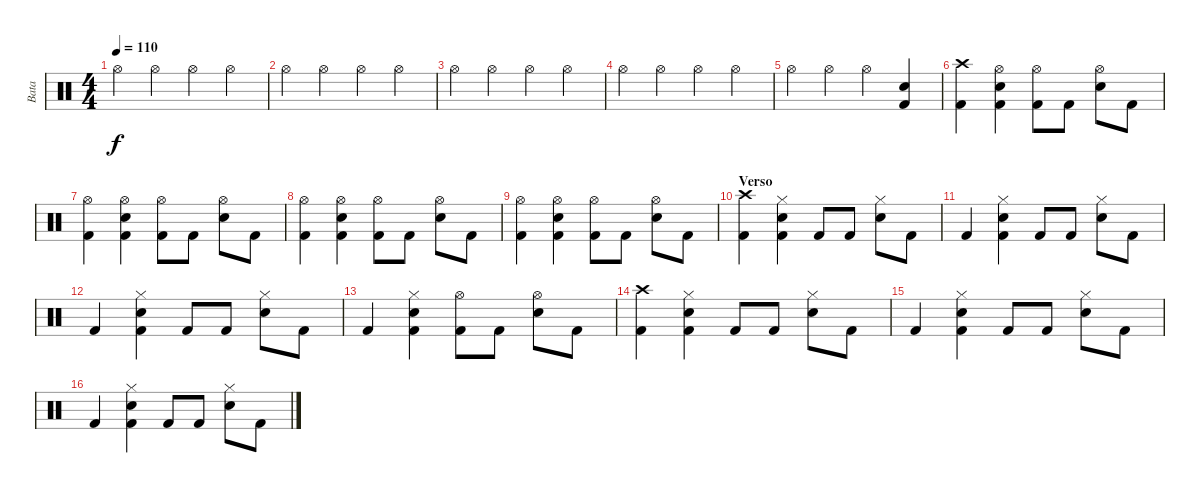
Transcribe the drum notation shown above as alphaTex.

\track ("Bata" "Bata") {instrument percussion}
\staff {score}
\articulation defaults
\ts (4 4)
\tempo 110
\clef neutral
\ks c "Hi-Hat (open)".4{dy f} "Hi-Hat (open)".4 "Hi-Hat (open)".4 "Hi-Hat (open)".4
|
"Hi-Hat (open)".4 "Hi-Hat (open)".4 "Hi-Hat (open)".4 "Hi-Hat (open)".4 |
"Hi-Hat (open)".4 "Hi-Hat (open)".4 "Hi-Hat (open)".4 "Hi-Hat (open)".4 |
"Hi-Hat (open)".4 "Hi-Hat (open)".4 "Hi-Hat (open)".4 "Hi-Hat (open)".4 |
"Hi-Hat (open)".4 "Hi-Hat (open)".4 "Hi-Hat (open)".4 ("Kick (hit) 2" "Snare (hit) 2").4 |
("Kick (hit) 2" "Crash high (hit)").4 ("Kick (hit) 2" "Snare (hit) 2" "Hi-Hat (open)").4 ("Kick (hit) 2" "Hi-Hat (open)").8 "Kick (hit) 2".8 ("Snare (hit) 2" "Hi-Hat (open)").8 "Kick (hit) 2".8 |
("Kick (hit) 2" "Hi-Hat (open)").4 ("Kick (hit) 2" "Snare (hit) 2" "Hi-Hat (open)").4 ("Kick (hit) 2" "Hi-Hat (open)").8 "Kick (hit) 2".8 ("Snare (hit) 2" "Hi-Hat (open)").8 "Kick (hit) 2".8 |
("Kick (hit) 2" "Hi-Hat (open)").4 ("Kick (hit) 2" "Snare (hit) 2" "Hi-Hat (open)").4 ("Kick (hit) 2" "Hi-Hat (open)").8 "Kick (hit) 2".8 ("Snare (hit) 2" "Hi-Hat (open)").8 "Kick (hit) 2".8 |
("Kick (hit) 2" "Hi-Hat (open)").4 ("Kick (hit) 2" "Snare (hit) 2" "Hi-Hat (open)").4 ("Kick (hit) 2" "Hi-Hat (open)").8 "Kick (hit) 2".8 ("Snare (hit) 2" "Hi-Hat (open)").8 "Kick (hit) 2".8 |
\section ("" "Verso")
("Kick (hit) 2" "Crash high (hit)").4 ("Kick (hit) 2" "Snare (hit) 2" "Hi-Hat (closed)").4 "Kick (hit) 2".8 "Kick (hit) 2".8 ("Snare (hit) 2" "Hi-Hat (closed)").8 "Kick (hit) 2".8 |
"Kick (hit) 2".4 ("Kick (hit) 2" "Snare (hit) 2" "Hi-Hat (closed)").4 "Kick (hit) 2".8 "Kick (hit) 2".8 ("Snare (hit) 2" "Hi-Hat (closed)").8 "Kick (hit) 2".8 |
"Kick (hit) 2".4 ("Kick (hit) 2" "Snare (hit) 2" "Hi-Hat (closed)").4 "Kick (hit) 2".8 "Kick (hit) 2".8 ("Snare (hit) 2" "Hi-Hat (closed)").8 "Kick (hit) 2".8 |
"Kick (hit) 2".4 ("Kick (hit) 2" "Snare (hit) 2" "Hi-Hat (closed)").4 ("Kick (hit) 2" "Hi-Hat (open)").8 "Kick (hit) 2".8 ("Snare (hit) 2" "Hi-Hat (open)").8 "Kick (hit) 2".8 |
("Kick (hit) 2" "Crash high (hit)").4 ("Kick (hit) 2" "Snare (hit) 2" "Hi-Hat (closed)").4 "Kick (hit) 2".8 "Kick (hit) 2".8 ("Snare (hit) 2" "Hi-Hat (closed)").8 "Kick (hit) 2".8 |
"Kick (hit) 2".4 ("Kick (hit) 2" "Snare (hit) 2" "Hi-Hat (closed)").4 "Kick (hit) 2".8 "Kick (hit) 2".8 ("Snare (hit) 2" "Hi-Hat (closed)").8 "Kick (hit) 2".8 |
"Kick (hit) 2".4 ("Kick (hit) 2" "Snare (hit) 2" "Hi-Hat (closed)").4 "Kick (hit) 2".8 "Kick (hit) 2".8 ("Snare (hit) 2" "Hi-Hat (closed)").8 "Kick (hit) 2".8
